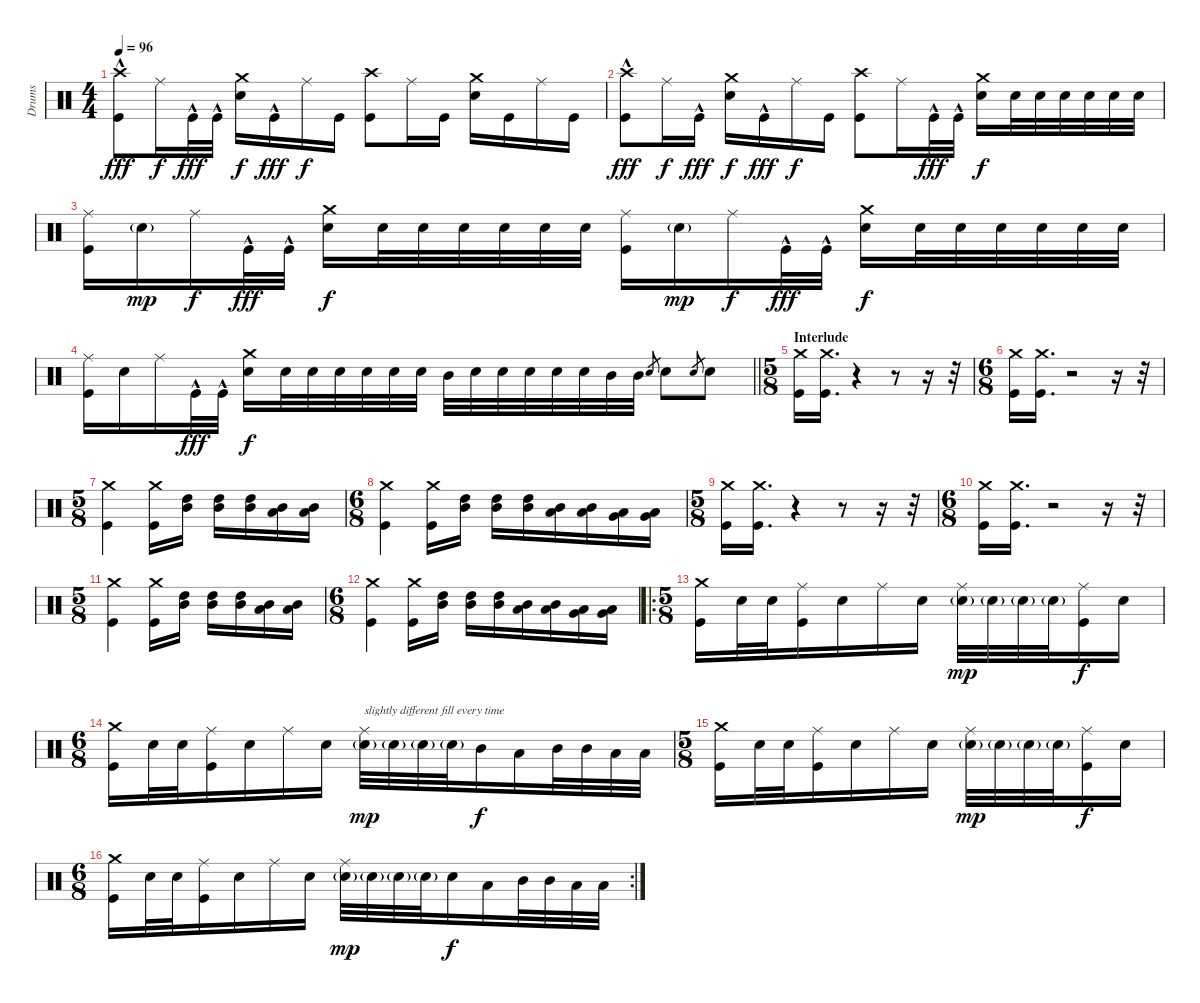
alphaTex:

\track ("Drums" "Drums") {instrument percussion}
\staff {score}
\articulation defaults
\ts (4 4)
\tempo 96
\clef neutral
\ks c
("Crash high (hit)" "Kick (hit)"{hac}).8{dy fff} "Ride (middle)".16{dy f} "Kick (hit)"{hac}.32{dy fff} "Kick (hit)"{hac}.32 ("Crash medium (hit)" "Electric Snare (hit)").16{dy f} "Kick (hit)"{hac}.16{dy fff} "Ride (middle)".16{dy f} "Kick (hit)".16 ("Crash high (hit)" "Kick (hit)").8 "Ride (middle)".16 "Kick (hit)".16 ("Crash medium (hit)" "Electric Snare (hit)").16 "Kick (hit)".16 "Ride (middle)".16 "Kick (hit)".16 |
("Crash high (hit)" "Kick (hit)"{hac}).8{dy fff} "Ride (middle)".16{dy f} "Kick (hit)"{hac}.16{dy fff} ("Crash medium (hit)" "Electric Snare (hit)").16{dy f} "Kick (hit)"{hac}.16{dy fff} "Ride (middle)".16{dy f} "Kick (hit)".16 ("Crash high (hit)" "Kick (hit)").8 "Ride (middle)".16 "Kick (hit)"{hac}.32{dy fff} "Kick (hit)"{hac}.32 ("Crash medium (hit)" "Electric Snare (hit)").16{dy f} "Electric Snare (hit)".32 "Electric Snare (hit)".32 "Electric Snare (hit)".32 "Electric Snare (hit)".32 "Electric Snare (hit)".32 "Electric Snare (hit)".32 |
("Ride (middle)" "Kick (hit)").16 "Electric Snare (hit)"{g}.16{dy mp} "Ride (middle)".16{dy f} "Kick (hit)"{hac}.32{dy fff} "Kick (hit)"{hac}.32 ("Crash medium (hit)" "Electric Snare (hit)").16{dy f} "Electric Snare (hit)".32 "Electric Snare (hit)".32 "Electric Snare (hit)".32 "Electric Snare (hit)".32 "Electric Snare (hit)".32 "Electric Snare (hit)".32 ("Ride (middle)" "Kick (hit)").16 "Electric Snare (hit)"{g}.16{dy mp} "Ride (middle)".16{dy f} "Kick (hit)"{hac}.32{dy fff} "Kick (hit)"{hac}.32 ("Crash medium (hit)" "Electric Snare (hit)").16{dy f} "Electric Snare (hit)".32 "Electric Snare (hit)".32 "Electric Snare (hit)".32 "Electric Snare (hit)".32 "Electric Snare (hit)".32 "Electric Snare (hit)".32 |
\barLineRight lightlight
("Ride (middle)" "Kick (hit)").16 "Electric Snare (hit)".16 "Ride (middle)".16 "Kick (hit)"{hac}.32{dy fff} "Kick (hit)"{hac}.32 ("Crash medium (hit)" "Electric Snare (hit)").16{dy f} "Electric Snare (hit)".32 "Electric Snare (hit)".32 "Electric Snare (hit)".32 "Electric Snare (hit)".32 "Electric Snare (hit)".32 "Electric Snare (hit)".32 "Mid Tom (hit)".32 "Electric Snare (hit)".32 "Electric Snare (hit)".32 "Electric Snare (hit)".32 "Electric Snare (hit)".32 "Electric Snare (hit)".32 "Mid Tom (hit)".32 "Mid Tom (hit)".32 "Electric Snare (hit)".8{gr} "Electric Snare (hit)".8 "Electric Snare (hit)".8{gr} "Electric Snare (hit)".8 |
\ts (5 8)
\section ("" "Interlude")
("Crash medium (hit)" "Kick (hit)").16 ("Crash medium (hit)" "Kick (hit)").16{d} r.4{volume 0} r.8 r.16 r.32 |
\ts (6 8)
("Crash medium (hit)" "Kick (hit)").16{volume 13} ("Crash medium (hit)" "Kick (hit)").16{d} r.2{volume 0} r.16 r.32 |
\ts (5 8)
("Crash medium (hit)" "Kick (hit)").4{volume 13} ("Crash medium (hit)" "Kick (hit)").16 ("High Tom (hit)" "Mid Tom (hit)").16 ("High Tom (hit)" "Mid Tom (hit)").16 ("High Tom (hit)" "Mid Tom (hit)").16 ("Mid Tom (hit)" "Low Tom (hit)").16 ("Mid Tom (hit)" "Low Tom (hit)").16 |
\ts (6 8)
("Crash medium (hit)" "Kick (hit)").4 ("Crash medium (hit)" "Kick (hit)").16 ("High Tom (hit)" "Mid Tom (hit)").16 ("High Tom (hit)" "Mid Tom (hit)").16 ("High Tom (hit)" "Mid Tom (hit)").16 ("Mid Tom (hit)" "Low Tom (hit)").16 ("Mid Tom (hit)" "Low Tom (hit)").16 ("Low Tom (hit)" "Very Low Tom (hit)").16 ("Low Tom (hit)" "Very Low Tom (hit)").16 |
\ts (5 8)
("Crash medium (hit)" "Kick (hit)").16 ("Crash medium (hit)" "Kick (hit)").16{d} r.4{volume 0} r.8 r.16 r.32 |
\ts (6 8)
("Crash medium (hit)" "Kick (hit)").16{volume 13} ("Crash medium (hit)" "Kick (hit)").16{d} r.2{volume 0} r.16 r.32 |
\ts (5 8)
("Crash medium (hit)" "Kick (hit)").4{volume 13} ("Crash medium (hit)" "Kick (hit)").16 ("High Tom (hit)" "Mid Tom (hit)").16 ("High Tom (hit)" "Mid Tom (hit)").16 ("High Tom (hit)" "Mid Tom (hit)").16 ("Mid Tom (hit)" "Low Tom (hit)").16 ("Mid Tom (hit)" "Low Tom (hit)").16 |
\ts (6 8)
("Crash medium (hit)" "Kick (hit)").4 ("Crash medium (hit)" "Kick (hit)").16 ("High Tom (hit)" "Mid Tom (hit)").16 ("High Tom (hit)" "Mid Tom (hit)").16 ("High Tom (hit)" "Mid Tom (hit)").16 ("Mid Tom (hit)" "Low Tom (hit)").16 ("Mid Tom (hit)" "Low Tom (hit)").16 ("Low Tom (hit)" "Very Low Tom (hit)").16 ("Low Tom (hit)" "Very Low Tom (hit)").16 |
\ro
\ts (5 8)
("Crash medium (hit)" "Kick (hit)").16 "Electric Snare (hit)".32 "Electric Snare (hit)".32 ("Ride (middle)" "Kick (hit)").16 "Electric Snare (hit)".16 "Ride (middle)".16 "Electric Snare (hit)".16 ("Ride (middle)" "Electric Snare (hit)"{g}).32{dy mp} "Electric Snare (hit)"{g}.32 "Electric Snare (hit)"{g}.32 "Electric Snare (hit)"{g}.32 ("Ride (middle)" "Kick (hit)").16{dy f} "Electric Snare (hit)".16 |
\ts (6 8)
("Crash medium (hit)" "Kick (hit)").16 "Electric Snare (hit)".32 "Electric Snare (hit)".32 ("Ride (middle)" "Kick (hit)").16 "Electric Snare (hit)".16 "Ride (middle)".16 "Electric Snare (hit)".16 ("Ride (middle)" "Electric Snare (hit)"{g}).32{txt "slightly different fill every time" dy mp} "Electric Snare (hit)"{g}.32 "Electric Snare (hit)"{g}.32 "Electric Snare (hit)"{g}.32 "Mid Tom (hit)".16{dy f} "Low Tom (hit)".16 "Mid Tom (hit)".32 "Mid Tom (hit)".32 "Low Tom (hit)".32 "Low Tom (hit)".32 |
\ts (5 8)
("Crash medium (hit)" "Kick (hit)").16 "Electric Snare (hit)".32 "Electric Snare (hit)".32 ("Ride (middle)" "Kick (hit)").16 "Electric Snare (hit)".16 "Ride (middle)".16 "Electric Snare (hit)".16 ("Ride (middle)" "Electric Snare (hit)"{g}).32{dy mp} "Electric Snare (hit)"{g}.32 "Electric Snare (hit)"{g}.32 "Electric Snare (hit)"{g}.32 ("Ride (middle)" "Kick (hit)").16{dy f} "Electric Snare (hit)".16 |
\rc 2
\ts (6 8)
("Crash medium (hit)" "Kick (hit)").16 "Electric Snare (hit)".32 "Electric Snare (hit)".32 ("Ride (middle)" "Kick (hit)").16 "Electric Snare (hit)".16 "Ride (middle)".16 "Electric Snare (hit)".16 ("Ride (middle)" "Electric Snare (hit)"{g}).32{dy mp} "Electric Snare (hit)"{g}.32 "Electric Snare (hit)"{g}.32 "Electric Snare (hit)"{g}.32 "Electric Snare (hit)".16{dy f} "Low Tom (hit)".16 "Mid Tom (hit)".32 "Mid Tom (hit)".32 "Low Tom (hit)".32 "Low Tom (hit)".32
